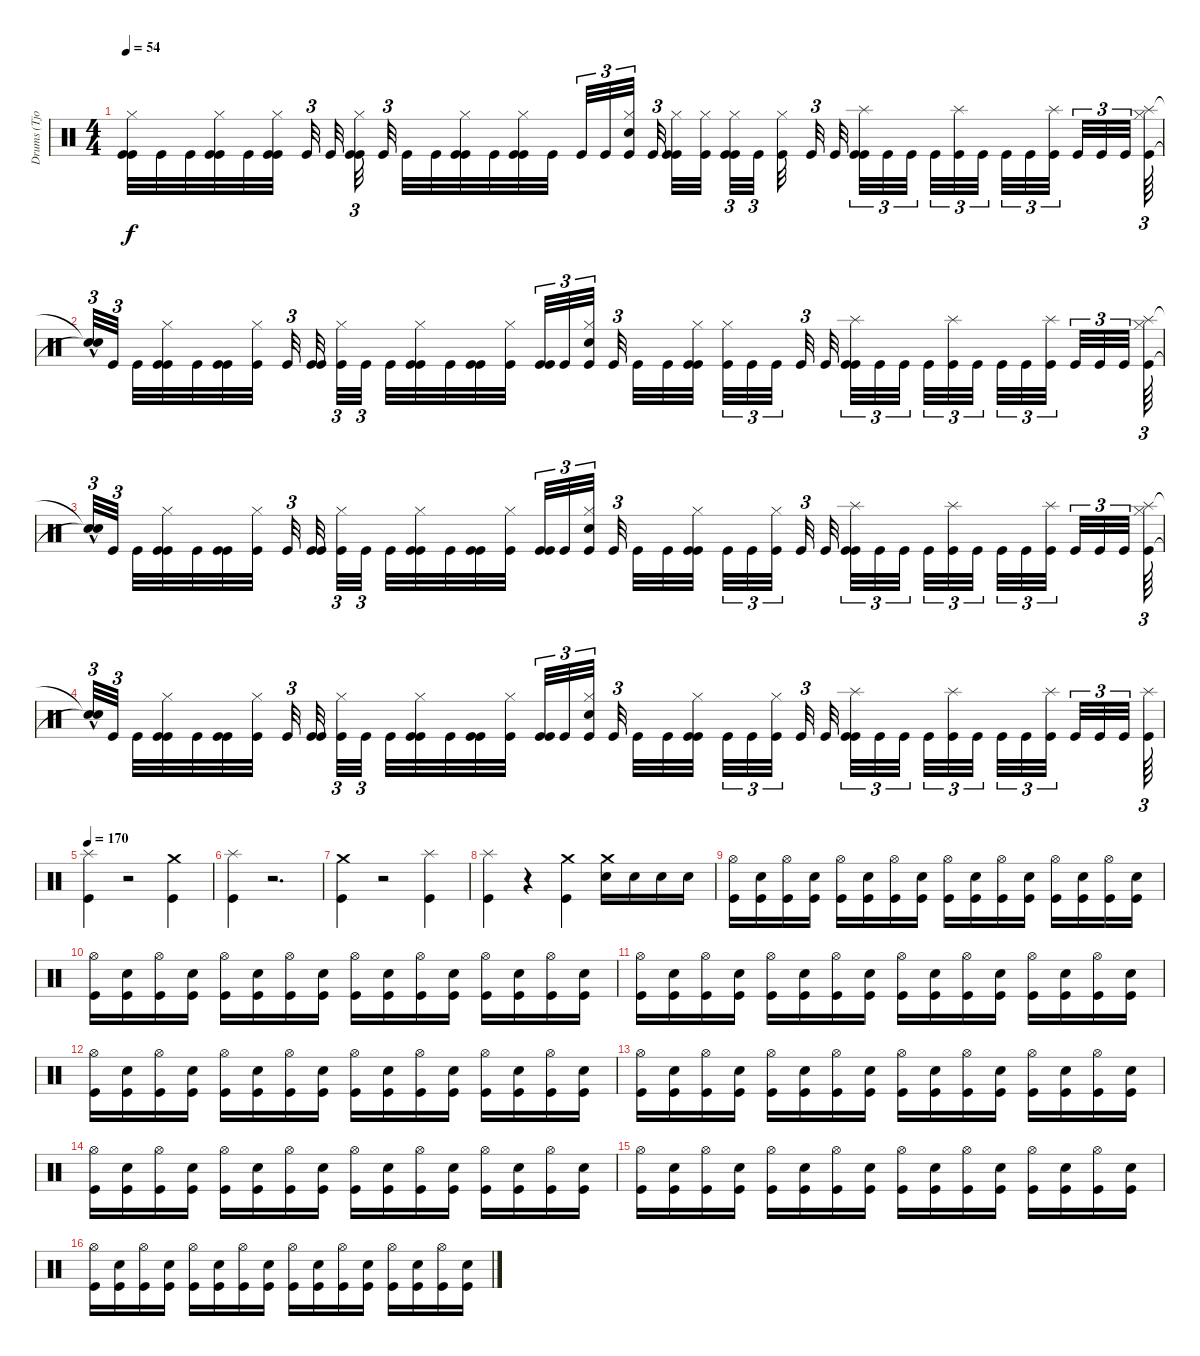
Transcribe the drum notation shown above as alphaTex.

\track ("Drums (Tjodalv)" "Drums (Tjo") {instrument percussion}
\staff {score}
\articulation defaults
\ts (4 4)
\tempo 54
\clef neutral
\ks c
("Kick (hit)" "Hi-Hat (closed)" "Kick (hit)").32{dy f} "Kick (hit)".32 "Kick (hit)".32 ("Kick (hit)" "Hi-Hat (closed)" "Kick (hit)").32 "Kick (hit)".32 ("Kick (hit)" "Kick (hit)" "Hi-Hat (closed)").32 "Kick (hit)".32{tu (3 2)} "Kick (hit)".32 ("Kick (hit)" "Hi-Hat (closed)" "Kick (hit)").32{tu (3 2)} "Kick (hit)".32{tu (3 2)} "Kick (hit)".32 "Kick (hit)".32 ("Hi-Hat (closed)" "Kick (hit)" "Kick (hit)").32 "Kick (hit)".32 ("Kick (hit)" "Hi-Hat (closed)" "Kick (hit)").32 "Kick (hit)".32 "Kick (hit)".32{tu (3 2)} "Kick (hit)".32{tu (3 2)} ("Hi-Hat (closed)" "Electric Snare (hit)" "Kick (hit)").32{tu (3 2)} "Kick (hit)".32{tu (3 2)} ("Kick (hit)" "Kick (hit)" "Hi-Hat (closed)").32 ("Hi-Hat (closed)" "Kick (hit)").32 ("Kick (hit)" "Hi-Hat (closed)" "Kick (hit)").32{tu (3 2)} "Kick (hit)".32{tu (3 2)} ("Kick (hit)" "Hi-Hat (closed)").32 "Kick (hit)".32{tu (3 2)} "Kick (hit)".32 ("Kick (hit)" "Splash (hit)" "Kick (hit)").32{tu (3 2)} "Kick (hit)".32{tu (3 2)} "Kick (hit)".32{tu (3 2)} "Kick (hit)".32{tu (3 2)} ("Splash (hit)" "Kick (hit)").32{tu (3 2)} "Kick (hit)".32{tu (3 2)} "Kick (hit)".32{tu (3 2)} "Kick (hit)".32{tu (3 2)} ("Splash (hit)" "Kick (hit)").32{tu (3 2)} "Kick (hit)".32{tu (3 2)} "Kick (hit)".32{tu (3 2)} "Kick (hit)".32{tu (3 2)} ("Splash (hit)" "Kick (hit)" "Hi-Hat (closed)").64{tu (3 2)} |
("Snare (hit)"{hac t} "Snare (hit)"{t}).32{tu (3 2)} "Kick (hit)".32{tu (3 2)} "Kick (hit)".32 ("Kick (hit)" "Kick (hit)" "Hi-Hat (closed)").32 "Kick (hit)".32 ("Kick (hit)" "Kick (hit)").32 ("Kick (hit)" "Hi-Hat (closed)").32 "Kick (hit)".32{tu (3 2)} ("Kick (hit)" "Kick (hit)").32 ("Hi-Hat (closed)" "Kick (hit)").32{tu (3 2)} "Kick (hit)".32{tu (3 2)} "Kick (hit)".32 ("Kick (hit)" "Hi-Hat (closed)" "Kick (hit)").32 "Kick (hit)".32 ("Kick (hit)" "Kick (hit)").32 ("Hi-Hat (closed)" "Kick (hit)").32 ("Kick (hit)" "Kick (hit)").32{tu (3 2)} "Kick (hit)".32{tu (3 2)} ("Hi-Hat (closed)" "Electric Snare (hit)" "Kick (hit)").32{tu (3 2)} "Kick (hit)".32{tu (3 2)} "Kick (hit)".32 "Kick (hit)".32 ("Hi-Hat (closed)" "Kick (hit)" "Kick (hit)").32 ("Hi-Hat (closed)" "Kick (hit)").32{tu (3 2)} "Kick (hit)".32{tu (3 2)} "Kick (hit)".32{tu (3 2)} "Kick (hit)".32{tu (3 2)} "Kick (hit)".32 ("Kick (hit)" "Splash (hit)" "Kick (hit)").32{tu (3 2)} "Kick (hit)".32{tu (3 2)} "Kick (hit)".32{tu (3 2)} "Kick (hit)".32{tu (3 2)} ("Splash (hit)" "Kick (hit)").32{tu (3 2)} "Kick (hit)".32{tu (3 2)} "Kick (hit)".32{tu (3 2)} "Kick (hit)".32{tu (3 2)} ("Splash (hit)" "Kick (hit)").32{tu (3 2)} "Kick (hit)".32{tu (3 2)} "Kick (hit)".32{tu (3 2)} "Kick (hit)".32{tu (3 2)} ("Splash (hit)" "Kick (hit)" "Hi-Hat (closed)").64{tu (3 2)} |
("Snare (hit)"{hac t} "Snare (hit)"{t}).32{tu (3 2)} "Kick (hit)".32{tu (3 2)} "Kick (hit)".32 ("Kick (hit)" "Kick (hit)" "Hi-Hat (closed)").32 "Kick (hit)".32 ("Kick (hit)" "Kick (hit)").32 ("Kick (hit)" "Hi-Hat (closed)").32 "Kick (hit)".32{tu (3 2)} ("Kick (hit)" "Kick (hit)").32 ("Hi-Hat (closed)" "Kick (hit)").32{tu (3 2)} "Kick (hit)".32{tu (3 2)} "Kick (hit)".32 ("Kick (hit)" "Hi-Hat (closed)" "Kick (hit)").32 "Kick (hit)".32 ("Kick (hit)" "Kick (hit)").32 ("Hi-Hat (closed)" "Kick (hit)").32 ("Kick (hit)" "Kick (hit)").32{tu (3 2)} "Kick (hit)".32{tu (3 2)} ("Hi-Hat (closed)" "Electric Snare (hit)" "Kick (hit)").32{tu (3 2)} "Kick (hit)".32{tu (3 2)} "Kick (hit)".32 "Kick (hit)".32 ("Hi-Hat (closed)" "Kick (hit)" "Kick (hit)").32 "Kick (hit)".32{tu (3 2)} "Kick (hit)".32{tu (3 2)} ("Hi-Hat (closed)" "Kick (hit)").32{tu (3 2)} "Kick (hit)".32{tu (3 2)} "Kick (hit)".32 ("Kick (hit)" "Splash (hit)" "Kick (hit)").32{tu (3 2)} "Kick (hit)".32{tu (3 2)} "Kick (hit)".32{tu (3 2)} "Kick (hit)".32{tu (3 2)} ("Splash (hit)" "Kick (hit)").32{tu (3 2)} "Kick (hit)".32{tu (3 2)} "Kick (hit)".32{tu (3 2)} "Kick (hit)".32{tu (3 2)} ("Splash (hit)" "Kick (hit)").32{tu (3 2)} "Kick (hit)".32{tu (3 2)} "Kick (hit)".32{tu (3 2)} "Kick (hit)".32{tu (3 2)} ("Splash (hit)" "Kick (hit)" "Hi-Hat (closed)").64{tu (3 2)} |
("Snare (hit)"{hac t} "Snare (hit)"{t}).32{tu (3 2)} "Kick (hit)".32{tu (3 2)} "Kick (hit)".32 ("Kick (hit)" "Kick (hit)" "Hi-Hat (closed)").32 "Kick (hit)".32 ("Kick (hit)" "Kick (hit)").32 ("Kick (hit)" "Hi-Hat (closed)").32 "Kick (hit)".32{tu (3 2)} ("Kick (hit)" "Kick (hit)").32 ("Hi-Hat (closed)" "Kick (hit)").32{tu (3 2)} "Kick (hit)".32{tu (3 2)} "Kick (hit)".32 ("Kick (hit)" "Hi-Hat (closed)" "Kick (hit)").32 "Kick (hit)".32 ("Kick (hit)" "Kick (hit)").32 ("Hi-Hat (closed)" "Kick (hit)").32 ("Kick (hit)" "Kick (hit)").32{tu (3 2)} "Kick (hit)".32{tu (3 2)} ("Hi-Hat (closed)" "Electric Snare (hit)" "Kick (hit)").32{tu (3 2)} "Kick (hit)".32{tu (3 2)} "Kick (hit)".32 "Kick (hit)".32 ("Hi-Hat (closed)" "Kick (hit)" "Kick (hit)").32 "Kick (hit)".32{tu (3 2)} "Kick (hit)".32{tu (3 2)} ("Hi-Hat (closed)" "Kick (hit)").32{tu (3 2)} "Kick (hit)".32{tu (3 2)} "Kick (hit)".32 ("Kick (hit)" "Splash (hit)" "Kick (hit)").32{tu (3 2)} "Kick (hit)".32{tu (3 2)} "Kick (hit)".32{tu (3 2)} "Kick (hit)".32{tu (3 2)} ("Splash (hit)" "Kick (hit)").32{tu (3 2)} "Kick (hit)".32{tu (3 2)} "Kick (hit)".32{tu (3 2)} "Kick (hit)".32{tu (3 2)} ("Splash (hit)" "Kick (hit)").32{tu (3 2)} "Kick (hit)".32{tu (3 2)} "Kick (hit)".32{tu (3 2)} "Kick (hit)".32{tu (3 2)} ("Splash (hit)" "Kick (hit)").64{tu (3 2)} |
\tempo 170
("Splash (hit)" "Kick (hit)").4 r.2 ("Crash medium (hit)" "Kick (hit)").4 |
("Splash (hit)" "Kick (hit)").4 r.2{d} |
("Crash medium (hit)" "Kick (hit)").4 r.2 ("Splash (hit)" "Kick (hit)").4 |
("Splash (hit)" "Kick (hit)").4 r.4 ("Crash medium (hit)" "Kick (hit)").4 ("Crash medium (hit)" "Electric Snare (hit)").16 "Electric Snare (hit)".16 "Electric Snare (hit)".16 "Electric Snare (hit)".16 |
("Hi-Hat (open)" "Kick (hit)").16 ("Kick (hit)" "Electric Snare (hit)").16 ("Hi-Hat (open)" "Kick (hit)").16 ("Kick (hit)" "Electric Snare (hit)").16 ("Hi-Hat (open)" "Kick (hit)").16 ("Kick (hit)" "Electric Snare (hit)").16 ("Hi-Hat (open)" "Kick (hit)").16 ("Kick (hit)" "Electric Snare (hit)").16 ("Hi-Hat (open)" "Kick (hit)").16 ("Kick (hit)" "Electric Snare (hit)").16 ("Hi-Hat (open)" "Kick (hit)").16 ("Kick (hit)" "Electric Snare (hit)").16 ("Hi-Hat (open)" "Kick (hit)").16 ("Kick (hit)" "Electric Snare (hit)").16 ("Hi-Hat (open)" "Kick (hit)").16 ("Kick (hit)" "Electric Snare (hit)").16 |
("Hi-Hat (open)" "Kick (hit)").16 ("Kick (hit)" "Electric Snare (hit)").16 ("Hi-Hat (open)" "Kick (hit)").16 ("Kick (hit)" "Electric Snare (hit)").16 ("Hi-Hat (open)" "Kick (hit)").16 ("Kick (hit)" "Electric Snare (hit)").16 ("Hi-Hat (open)" "Kick (hit)").16 ("Kick (hit)" "Electric Snare (hit)").16 ("Hi-Hat (open)" "Kick (hit)").16 ("Kick (hit)" "Electric Snare (hit)").16 ("Hi-Hat (open)" "Kick (hit)").16 ("Kick (hit)" "Electric Snare (hit)").16 ("Hi-Hat (open)" "Kick (hit)").16 ("Kick (hit)" "Electric Snare (hit)").16 ("Hi-Hat (open)" "Kick (hit)").16 ("Kick (hit)" "Electric Snare (hit)").16 |
("Hi-Hat (open)" "Kick (hit)").16 ("Kick (hit)" "Electric Snare (hit)").16 ("Hi-Hat (open)" "Kick (hit)").16 ("Kick (hit)" "Electric Snare (hit)").16 ("Hi-Hat (open)" "Kick (hit)").16 ("Kick (hit)" "Electric Snare (hit)").16 ("Hi-Hat (open)" "Kick (hit)").16 ("Kick (hit)" "Electric Snare (hit)").16 ("Hi-Hat (open)" "Kick (hit)").16 ("Kick (hit)" "Electric Snare (hit)").16 ("Hi-Hat (open)" "Kick (hit)").16 ("Kick (hit)" "Electric Snare (hit)").16 ("Hi-Hat (open)" "Kick (hit)").16 ("Kick (hit)" "Electric Snare (hit)").16 ("Hi-Hat (open)" "Kick (hit)").16 ("Kick (hit)" "Electric Snare (hit)").16 |
("Hi-Hat (open)" "Kick (hit)").16 ("Kick (hit)" "Electric Snare (hit)").16 ("Hi-Hat (open)" "Kick (hit)").16 ("Kick (hit)" "Electric Snare (hit)").16 ("Hi-Hat (open)" "Kick (hit)").16 ("Kick (hit)" "Electric Snare (hit)").16 ("Hi-Hat (open)" "Kick (hit)").16 ("Kick (hit)" "Electric Snare (hit)").16 ("Hi-Hat (open)" "Kick (hit)").16 ("Kick (hit)" "Electric Snare (hit)").16 ("Hi-Hat (open)" "Kick (hit)").16 ("Kick (hit)" "Electric Snare (hit)").16 ("Hi-Hat (open)" "Kick (hit)").16 ("Kick (hit)" "Electric Snare (hit)").16 ("Hi-Hat (open)" "Kick (hit)").16 ("Kick (hit)" "Electric Snare (hit)").16 |
("Hi-Hat (open)" "Kick (hit)").16 ("Kick (hit)" "Electric Snare (hit)").16 ("Hi-Hat (open)" "Kick (hit)").16 ("Kick (hit)" "Electric Snare (hit)").16 ("Hi-Hat (open)" "Kick (hit)").16 ("Kick (hit)" "Electric Snare (hit)").16 ("Hi-Hat (open)" "Kick (hit)").16 ("Kick (hit)" "Electric Snare (hit)").16 ("Hi-Hat (open)" "Kick (hit)").16 ("Kick (hit)" "Electric Snare (hit)").16 ("Hi-Hat (open)" "Kick (hit)").16 ("Kick (hit)" "Electric Snare (hit)").16 ("Hi-Hat (open)" "Kick (hit)").16 ("Kick (hit)" "Electric Snare (hit)").16 ("Hi-Hat (open)" "Kick (hit)").16 ("Kick (hit)" "Electric Snare (hit)").16 |
("Hi-Hat (open)" "Kick (hit)").16 ("Kick (hit)" "Electric Snare (hit)").16 ("Hi-Hat (open)" "Kick (hit)").16 ("Kick (hit)" "Electric Snare (hit)").16 ("Hi-Hat (open)" "Kick (hit)").16 ("Kick (hit)" "Electric Snare (hit)").16 ("Hi-Hat (open)" "Kick (hit)").16 ("Kick (hit)" "Electric Snare (hit)").16 ("Hi-Hat (open)" "Kick (hit)").16 ("Kick (hit)" "Electric Snare (hit)").16 ("Hi-Hat (open)" "Kick (hit)").16 ("Kick (hit)" "Electric Snare (hit)").16 ("Hi-Hat (open)" "Kick (hit)").16 ("Kick (hit)" "Electric Snare (hit)").16 ("Hi-Hat (open)" "Kick (hit)").16 ("Kick (hit)" "Electric Snare (hit)").16 |
("Hi-Hat (open)" "Kick (hit)").16 ("Kick (hit)" "Electric Snare (hit)").16 ("Hi-Hat (open)" "Kick (hit)").16 ("Kick (hit)" "Electric Snare (hit)").16 ("Hi-Hat (open)" "Kick (hit)").16 ("Kick (hit)" "Electric Snare (hit)").16 ("Hi-Hat (open)" "Kick (hit)").16 ("Kick (hit)" "Electric Snare (hit)").16 ("Hi-Hat (open)" "Kick (hit)").16 ("Kick (hit)" "Electric Snare (hit)").16 ("Hi-Hat (open)" "Kick (hit)").16 ("Kick (hit)" "Electric Snare (hit)").16 ("Hi-Hat (open)" "Kick (hit)").16 ("Kick (hit)" "Electric Snare (hit)").16 ("Hi-Hat (open)" "Kick (hit)").16 ("Kick (hit)" "Electric Snare (hit)").16 |
("Hi-Hat (open)" "Kick (hit)").16 ("Kick (hit)" "Electric Snare (hit)").16 ("Hi-Hat (open)" "Kick (hit)").16 ("Kick (hit)" "Electric Snare (hit)").16 ("Hi-Hat (open)" "Kick (hit)").16 ("Kick (hit)" "Electric Snare (hit)").16 ("Hi-Hat (open)" "Kick (hit)").16 ("Kick (hit)" "Electric Snare (hit)").16 ("Hi-Hat (open)" "Kick (hit)").16 ("Kick (hit)" "Electric Snare (hit)").16 ("Hi-Hat (open)" "Kick (hit)").16 ("Kick (hit)" "Electric Snare (hit)").16 ("Hi-Hat (open)" "Kick (hit)").16 ("Kick (hit)" "Electric Snare (hit)").16 ("Hi-Hat (open)" "Kick (hit)").16 ("Kick (hit)" "Electric Snare (hit)").16
